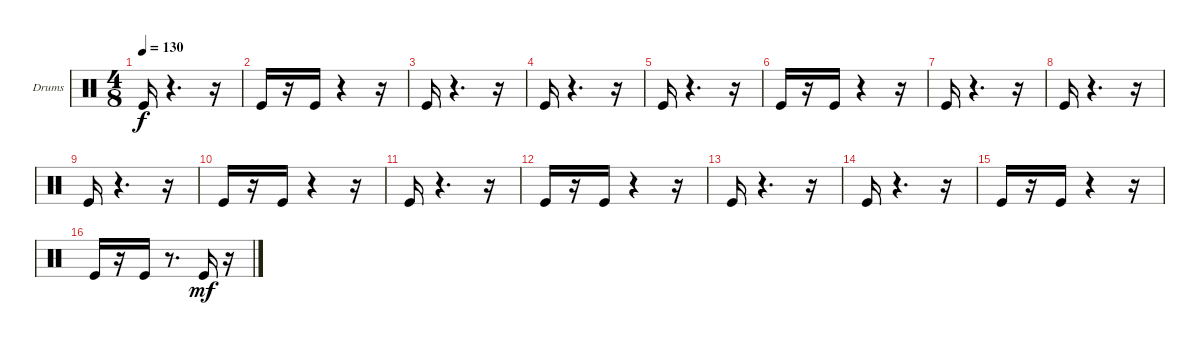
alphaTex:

\bracketExtendMode groupsimilarinstruments
\firstSystemTrackNameOrientation horizontal
\otherSystemsTrackNameOrientation horizontal
\track ("Ударные" "Drums") {instrument percussion}
\staff {score}
\articulation defaults
\ts (4 8)
\tempo 130
\clef neutral
\ks c "Kick (hit)".16{dy f}
r.4{d} r.16 |
"Kick (hit)".16 r.16 "Kick (hit)".16 r.4 r.16 |
"Kick (hit)".16 r.4{d} r.16 |
"Kick (hit)".16 r.4{d} r.16 |
"Kick (hit)".16 r.4{d} r.16 |
"Kick (hit)".16 r.16 "Kick (hit)".16 r.4 r.16 |
"Kick (hit)".16 r.4{d} r.16 |
"Kick (hit)".16 r.4{d} r.16 |
"Kick (hit)".16 r.4{d} r.16 |
"Kick (hit)".16 r.16 "Kick (hit)".16 r.4 r.16 |
"Kick (hit)".16 r.4{d} r.16 |
"Kick (hit)".16 r.16 "Kick (hit)".16 r.4 r.16 |
"Kick (hit)".16 r.4{d} r.16 |
"Kick (hit)".16 r.4{d} r.16 |
"Kick (hit)".16 r.16 "Kick (hit)".16 r.4 r.16 |
"Kick (hit)".16 r.16 "Kick (hit)".16 r.8{d} "Kick (hit)".16{dy mf} r.16
